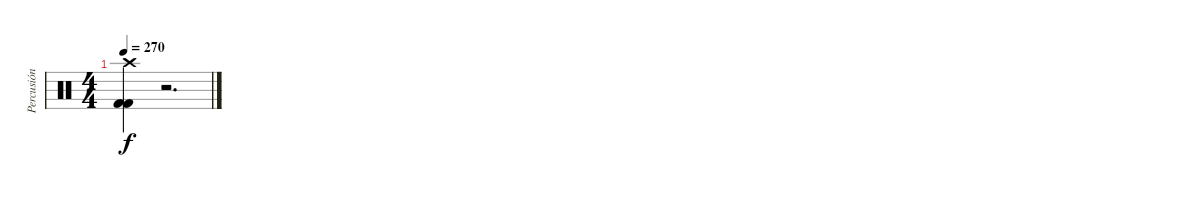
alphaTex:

\track ("Percusión" "Percusión") {instrument percussion}
\staff {score}
\articulation defaults
\ts (4 4)
\tempo 270
\clef neutral
\ks c
("Kick (hit) 2" "Kick (hit) 2" "Crash high (hit)").4{dy f} r.2{d}
